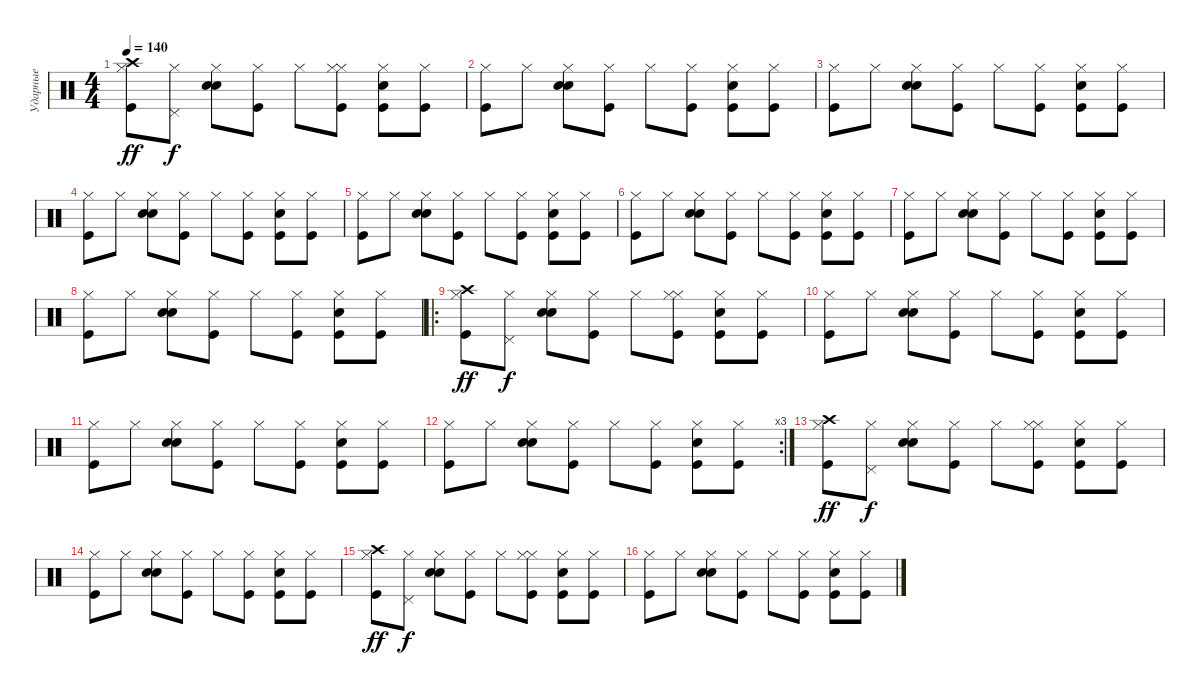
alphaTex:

\track ("Ударные" "Ударные") {instrument percussion}
\staff {score}
\articulation defaults
\ts (4 4)
\tempo 140
\clef neutral
\ks c
("Crash high (hit)" "Hi-Hat (closed)" "Kick (hit)").8{dy ff} ("Hi-Hat (closed)" "Pedal Hi-Hat (hit)").8{dy f} ("Hi-Hat (closed)" "Snare (hit) 2" "Snare (hit) 2").8 ("Hi-Hat (closed)" "Kick (hit)").8 "Hi-Hat (closed)".8 ("Hi-Hat (closed)" "Hi-Hat (closed)" "Kick (hit)").8 ("Hi-Hat (closed)" "Snare (hit) 2" "Kick (hit)").8 ("Hi-Hat (closed)" "Kick (hit)").8 |
("Hi-Hat (closed)" "Kick (hit)").8 "Hi-Hat (closed)".8 ("Hi-Hat (closed)" "Snare (hit) 2" "Snare (hit) 2").8 ("Hi-Hat (closed)" "Kick (hit)").8 "Hi-Hat (closed)".8 ("Hi-Hat (closed)" "Kick (hit)").8 ("Hi-Hat (closed)" "Snare (hit) 2" "Kick (hit)").8 ("Hi-Hat (closed)" "Kick (hit)").8 |
("Hi-Hat (closed)" "Kick (hit)").8 "Hi-Hat (closed)".8 ("Hi-Hat (closed)" "Snare (hit) 2" "Snare (hit) 2").8 ("Hi-Hat (closed)" "Kick (hit)").8 "Hi-Hat (closed)".8 ("Hi-Hat (closed)" "Kick (hit)").8 ("Hi-Hat (closed)" "Snare (hit) 2" "Kick (hit)").8 ("Hi-Hat (closed)" "Kick (hit)").8 |
("Hi-Hat (closed)" "Kick (hit)").8 "Hi-Hat (closed)".8 ("Hi-Hat (closed)" "Snare (hit) 2" "Snare (hit) 2").8 ("Hi-Hat (closed)" "Kick (hit)").8 "Hi-Hat (closed)".8 ("Hi-Hat (closed)" "Kick (hit)").8 ("Hi-Hat (closed)" "Snare (hit) 2" "Kick (hit)").8 ("Hi-Hat (closed)" "Kick (hit)").8 |
("Hi-Hat (closed)" "Kick (hit)").8 "Hi-Hat (closed)".8 ("Hi-Hat (closed)" "Snare (hit) 2" "Snare (hit) 2").8 ("Hi-Hat (closed)" "Kick (hit)").8 "Hi-Hat (closed)".8 ("Hi-Hat (closed)" "Kick (hit)").8 ("Hi-Hat (closed)" "Snare (hit) 2" "Kick (hit)").8 ("Hi-Hat (closed)" "Kick (hit)").8 |
("Hi-Hat (closed)" "Kick (hit)").8 "Hi-Hat (closed)".8 ("Hi-Hat (closed)" "Snare (hit) 2" "Snare (hit) 2").8 ("Hi-Hat (closed)" "Kick (hit)").8 "Hi-Hat (closed)".8 ("Hi-Hat (closed)" "Kick (hit)").8 ("Hi-Hat (closed)" "Snare (hit) 2" "Kick (hit)").8 ("Hi-Hat (closed)" "Kick (hit)").8 |
("Hi-Hat (closed)" "Kick (hit)").8 "Hi-Hat (closed)".8 ("Hi-Hat (closed)" "Snare (hit) 2" "Snare (hit) 2").8 ("Hi-Hat (closed)" "Kick (hit)").8 "Hi-Hat (closed)".8 ("Hi-Hat (closed)" "Kick (hit)").8 ("Hi-Hat (closed)" "Snare (hit) 2" "Kick (hit)").8 ("Hi-Hat (closed)" "Kick (hit)").8 |
("Hi-Hat (closed)" "Kick (hit)").8 "Hi-Hat (closed)".8 ("Hi-Hat (closed)" "Snare (hit) 2" "Snare (hit) 2").8 ("Hi-Hat (closed)" "Kick (hit)").8 "Hi-Hat (closed)".8 ("Hi-Hat (closed)" "Kick (hit)").8 ("Hi-Hat (closed)" "Snare (hit) 2" "Kick (hit)").8 ("Hi-Hat (closed)" "Kick (hit)").8 |
\ro
("Crash high (hit)" "Hi-Hat (closed)" "Kick (hit)").8{dy ff} ("Hi-Hat (closed)" "Pedal Hi-Hat (hit)").8{dy f} ("Hi-Hat (closed)" "Snare (hit) 2" "Snare (hit) 2").8 ("Hi-Hat (closed)" "Kick (hit)").8 "Hi-Hat (closed)".8 ("Hi-Hat (closed)" "Hi-Hat (closed)" "Kick (hit)").8 ("Hi-Hat (closed)" "Snare (hit) 2" "Kick (hit)").8 ("Hi-Hat (closed)" "Kick (hit)").8 |
("Hi-Hat (closed)" "Kick (hit)").8 "Hi-Hat (closed)".8 ("Hi-Hat (closed)" "Snare (hit) 2" "Snare (hit) 2").8 ("Hi-Hat (closed)" "Kick (hit)").8 "Hi-Hat (closed)".8 ("Hi-Hat (closed)" "Kick (hit)").8 ("Hi-Hat (closed)" "Snare (hit) 2" "Kick (hit)").8 ("Hi-Hat (closed)" "Kick (hit)").8 |
("Hi-Hat (closed)" "Kick (hit)").8 "Hi-Hat (closed)".8 ("Hi-Hat (closed)" "Snare (hit) 2" "Snare (hit) 2").8 ("Hi-Hat (closed)" "Kick (hit)").8 "Hi-Hat (closed)".8 ("Hi-Hat (closed)" "Kick (hit)").8 ("Hi-Hat (closed)" "Snare (hit) 2" "Kick (hit)").8 ("Hi-Hat (closed)" "Kick (hit)").8 |
\rc 3
("Hi-Hat (closed)" "Kick (hit)").8 "Hi-Hat (closed)".8 ("Hi-Hat (closed)" "Snare (hit) 2" "Snare (hit) 2").8 ("Hi-Hat (closed)" "Kick (hit)").8 "Hi-Hat (closed)".8 ("Hi-Hat (closed)" "Kick (hit)").8 ("Hi-Hat (closed)" "Snare (hit) 2" "Kick (hit)").8 ("Hi-Hat (closed)" "Kick (hit)").8 |
("Crash high (hit)" "Hi-Hat (closed)" "Kick (hit)").8{dy ff} ("Hi-Hat (closed)" "Pedal Hi-Hat (hit)").8{dy f} ("Hi-Hat (closed)" "Snare (hit) 2" "Snare (hit) 2").8 ("Hi-Hat (closed)" "Kick (hit)").8 "Hi-Hat (closed)".8 ("Hi-Hat (closed)" "Hi-Hat (closed)" "Kick (hit)").8 ("Hi-Hat (closed)" "Snare (hit) 2" "Kick (hit)").8 ("Hi-Hat (closed)" "Kick (hit)").8 |
("Hi-Hat (closed)" "Kick (hit)").8 "Hi-Hat (closed)".8 ("Hi-Hat (closed)" "Snare (hit) 2" "Snare (hit) 2").8 ("Hi-Hat (closed)" "Kick (hit)").8 "Hi-Hat (closed)".8 ("Hi-Hat (closed)" "Kick (hit)").8 ("Hi-Hat (closed)" "Snare (hit) 2" "Kick (hit)").8 ("Hi-Hat (closed)" "Kick (hit)").8 |
("Crash high (hit)" "Hi-Hat (closed)" "Kick (hit)").8{dy ff} ("Hi-Hat (closed)" "Pedal Hi-Hat (hit)").8{dy f} ("Hi-Hat (closed)" "Snare (hit) 2" "Snare (hit) 2").8 ("Hi-Hat (closed)" "Kick (hit)").8 "Hi-Hat (closed)".8 ("Hi-Hat (closed)" "Hi-Hat (closed)" "Kick (hit)").8 ("Hi-Hat (closed)" "Snare (hit) 2" "Kick (hit)").8 ("Hi-Hat (closed)" "Kick (hit)").8 |
("Hi-Hat (closed)" "Kick (hit)").8 "Hi-Hat (closed)".8 ("Hi-Hat (closed)" "Snare (hit) 2" "Snare (hit) 2").8 ("Hi-Hat (closed)" "Kick (hit)").8 "Hi-Hat (closed)".8 ("Hi-Hat (closed)" "Kick (hit)").8 ("Hi-Hat (closed)" "Snare (hit) 2" "Kick (hit)").8 ("Hi-Hat (closed)" "Kick (hit)").8
